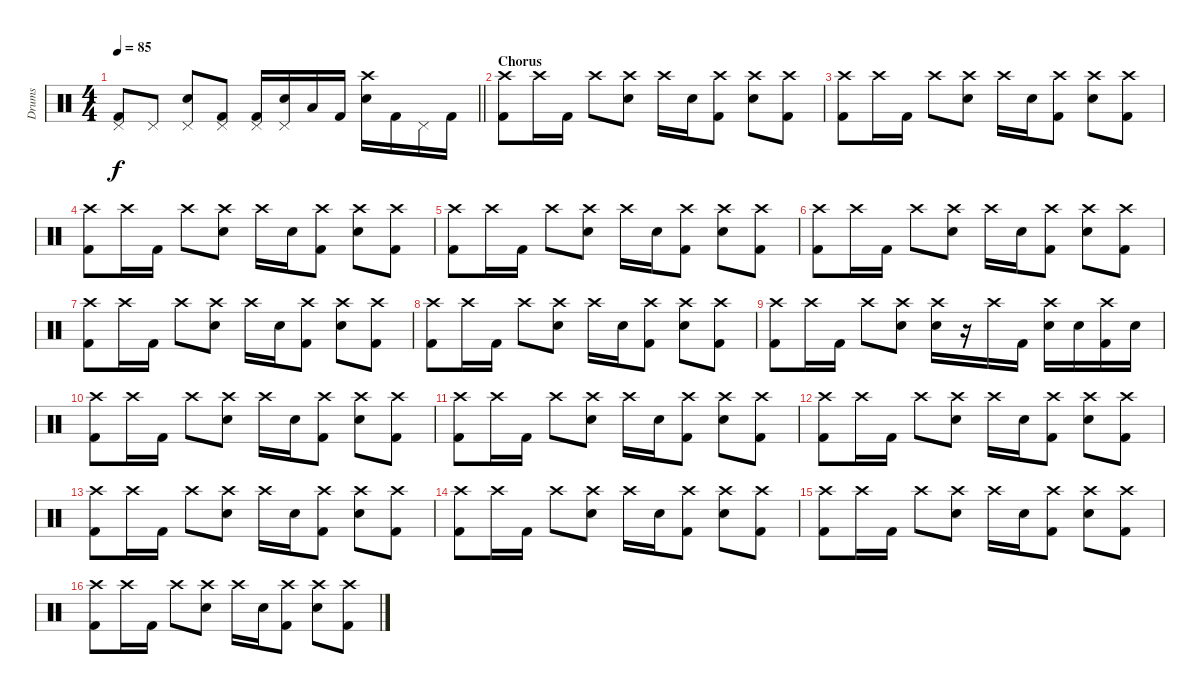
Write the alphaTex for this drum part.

\track ("Drums" "Drums") {instrument percussion}
\staff {score}
\articulation defaults
\ts (4 4)
\tempo 85
\clef neutral
\barLineRight lightlight
\ks c
("Pedal Hi-Hat (hit)" "Kick (hit) 2").8{dy f} "Pedal Hi-Hat (hit)".8 ("Pedal Hi-Hat (hit)" "Electric Snare (hit)").8 ("Pedal Hi-Hat (hit)" "Kick (hit) 2").8 ("Pedal Hi-Hat (hit)" "Kick (hit) 2").16 ("Pedal Hi-Hat (hit)" "Electric Snare (hit)").16 "Low Tom (hit)".16 "Kick (hit) 2".16 ("Crash high (hit)" "Electric Snare (hit)").16 "Kick (hit) 2".16 "Pedal Hi-Hat (hit)".16 "Kick (hit) 2".16 |
\section ("" "Chorus")
("Crash high (hit)" "Kick (hit) 2").8 "Crash high (hit)".16 "Kick (hit) 2".16 "Crash high (hit)".8 ("Crash high (hit)" "Electric Snare (hit)").8 "Crash high (hit)".16 "Electric Snare (hit)".16 ("Crash high (hit)" "Kick (hit) 2").8 ("Crash high (hit)" "Electric Snare (hit)").8 ("Crash high (hit)" "Kick (hit) 2").8 |
("Crash high (hit)" "Kick (hit) 2").8 "Crash high (hit)".16 "Kick (hit) 2".16 "Crash high (hit)".8 ("Crash high (hit)" "Electric Snare (hit)").8 "Crash high (hit)".16 "Electric Snare (hit)".16 ("Crash high (hit)" "Kick (hit) 2").8 ("Crash high (hit)" "Electric Snare (hit)").8 ("Crash high (hit)" "Kick (hit) 2").8 |
("Crash high (hit)" "Kick (hit) 2").8 "Crash high (hit)".16 "Kick (hit) 2".16 "Crash high (hit)".8 ("Crash high (hit)" "Electric Snare (hit)").8 "Crash high (hit)".16 "Electric Snare (hit)".16 ("Crash high (hit)" "Kick (hit) 2").8 ("Crash high (hit)" "Electric Snare (hit)").8 ("Crash high (hit)" "Kick (hit) 2").8 |
("Crash high (hit)" "Kick (hit) 2").8 "Crash high (hit)".16 "Kick (hit) 2".16 "Crash high (hit)".8 ("Crash high (hit)" "Electric Snare (hit)").8 "Crash high (hit)".16 "Electric Snare (hit)".16 ("Crash high (hit)" "Kick (hit) 2").8 ("Crash high (hit)" "Electric Snare (hit)").8 ("Crash high (hit)" "Kick (hit) 2").8 |
("Crash high (hit)" "Kick (hit) 2").8 "Crash high (hit)".16 "Kick (hit) 2".16 "Crash high (hit)".8 ("Crash high (hit)" "Electric Snare (hit)").8 "Crash high (hit)".16 "Electric Snare (hit)".16 ("Crash high (hit)" "Kick (hit) 2").8 ("Crash high (hit)" "Electric Snare (hit)").8 ("Crash high (hit)" "Kick (hit) 2").8 |
("Crash high (hit)" "Kick (hit) 2").8 "Crash high (hit)".16 "Kick (hit) 2".16 "Crash high (hit)".8 ("Crash high (hit)" "Electric Snare (hit)").8 "Crash high (hit)".16 "Electric Snare (hit)".16 ("Crash high (hit)" "Kick (hit) 2").8 ("Crash high (hit)" "Electric Snare (hit)").8 ("Crash high (hit)" "Kick (hit) 2").8 |
("Crash high (hit)" "Kick (hit) 2").8 "Crash high (hit)".16 "Kick (hit) 2".16 "Crash high (hit)".8 ("Crash high (hit)" "Electric Snare (hit)").8 "Crash high (hit)".16 "Electric Snare (hit)".16 ("Crash high (hit)" "Kick (hit) 2").8 ("Crash high (hit)" "Electric Snare (hit)").8 ("Crash high (hit)" "Kick (hit) 2").8 |
("Crash high (hit)" "Kick (hit) 2").8 "Crash high (hit)".16 "Kick (hit) 2".16 "Crash high (hit)".8 ("Crash high (hit)" "Electric Snare (hit)").8 ("Crash high (hit)" "Electric Snare (hit)").16 r.16 "Crash high (hit)".16 "Kick (hit) 2".16 ("Crash high (hit)" "Electric Snare (hit)").16 "Electric Snare (hit)".16 ("Crash high (hit)" "Kick (hit) 2").16 "Electric Snare (hit)".16 |
("Crash high (hit)" "Kick (hit) 2").8 "Crash high (hit)".16 "Kick (hit) 2".16 "Crash high (hit)".8 ("Crash high (hit)" "Electric Snare (hit)").8 "Crash high (hit)".16 "Electric Snare (hit)".16 ("Crash high (hit)" "Kick (hit) 2").8 ("Crash high (hit)" "Electric Snare (hit)").8 ("Crash high (hit)" "Kick (hit) 2").8 |
("Crash high (hit)" "Kick (hit) 2").8 "Crash high (hit)".16 "Kick (hit) 2".16 "Crash high (hit)".8 ("Crash high (hit)" "Electric Snare (hit)").8 "Crash high (hit)".16 "Electric Snare (hit)".16 ("Crash high (hit)" "Kick (hit) 2").8 ("Crash high (hit)" "Electric Snare (hit)").8 ("Crash high (hit)" "Kick (hit) 2").8 |
("Crash high (hit)" "Kick (hit) 2").8 "Crash high (hit)".16 "Kick (hit) 2".16 "Crash high (hit)".8 ("Crash high (hit)" "Electric Snare (hit)").8 "Crash high (hit)".16 "Electric Snare (hit)".16 ("Crash high (hit)" "Kick (hit) 2").8 ("Crash high (hit)" "Electric Snare (hit)").8 ("Crash high (hit)" "Kick (hit) 2").8 |
("Crash high (hit)" "Kick (hit) 2").8 "Crash high (hit)".16 "Kick (hit) 2".16 "Crash high (hit)".8 ("Crash high (hit)" "Electric Snare (hit)").8 "Crash high (hit)".16 "Electric Snare (hit)".16 ("Crash high (hit)" "Kick (hit) 2").8 ("Crash high (hit)" "Electric Snare (hit)").8 ("Crash high (hit)" "Kick (hit) 2").8 |
("Crash high (hit)" "Kick (hit) 2").8 "Crash high (hit)".16 "Kick (hit) 2".16 "Crash high (hit)".8 ("Crash high (hit)" "Electric Snare (hit)").8 "Crash high (hit)".16 "Electric Snare (hit)".16 ("Crash high (hit)" "Kick (hit) 2").8 ("Crash high (hit)" "Electric Snare (hit)").8 ("Crash high (hit)" "Kick (hit) 2").8 |
("Crash high (hit)" "Kick (hit) 2").8 "Crash high (hit)".16 "Kick (hit) 2".16 "Crash high (hit)".8 ("Crash high (hit)" "Electric Snare (hit)").8 "Crash high (hit)".16 "Electric Snare (hit)".16 ("Crash high (hit)" "Kick (hit) 2").8 ("Crash high (hit)" "Electric Snare (hit)").8 ("Crash high (hit)" "Kick (hit) 2").8 |
("Crash high (hit)" "Kick (hit) 2").8 "Crash high (hit)".16 "Kick (hit) 2".16 "Crash high (hit)".8 ("Crash high (hit)" "Electric Snare (hit)").8 "Crash high (hit)".16 "Electric Snare (hit)".16 ("Crash high (hit)" "Kick (hit) 2").8 ("Crash high (hit)" "Electric Snare (hit)").8 ("Crash high (hit)" "Kick (hit) 2").8
